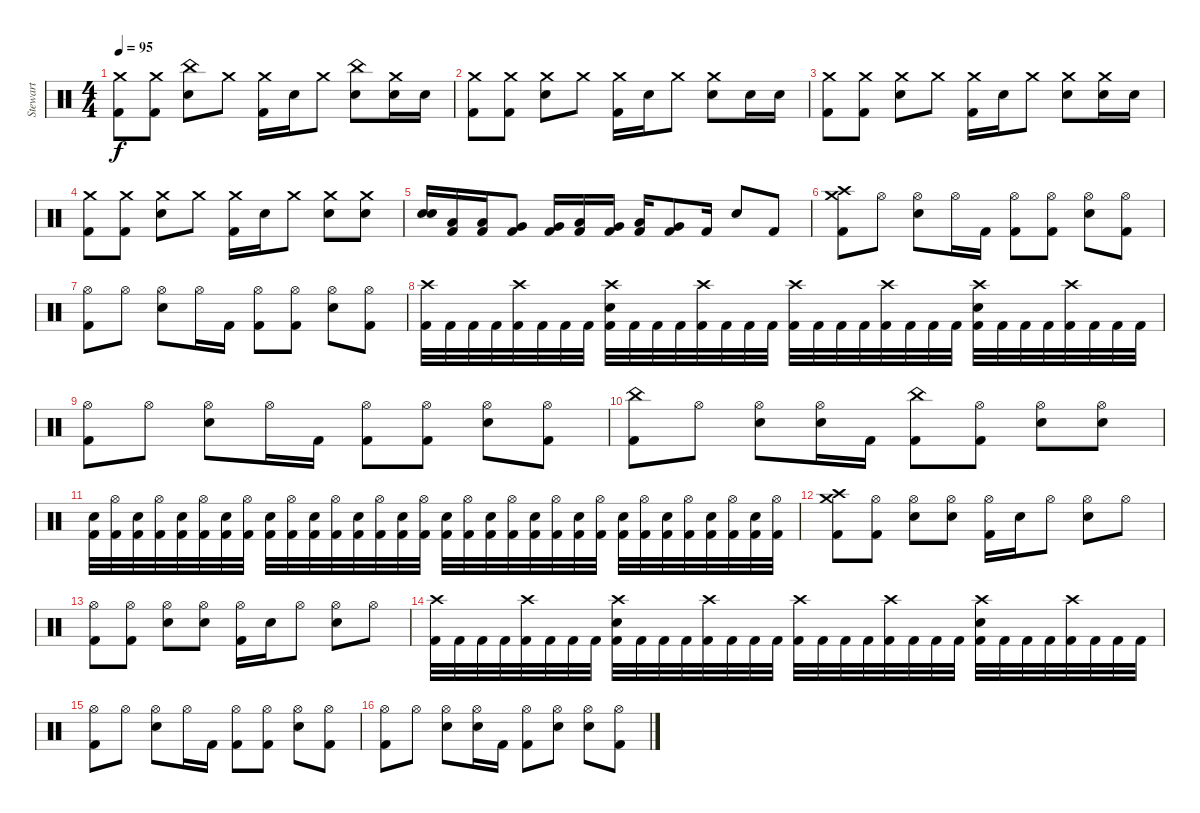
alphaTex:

\track ("Stewart" "Stewart") {instrument percussion}
\staff {score}
\articulation defaults
\ts (4 4)
\tempo 95
\clef neutral
\ks c
("Crash medium (hit)" "Kick (hit) 2").8{dy f} ("Crash medium (hit)" "Kick (hit) 2").8 ("China (hit)" "Snare (hit) 2").8 "Crash medium (hit)".8 ("Crash medium (hit)" "Kick (hit) 2").16 "Snare (hit) 2".16 "Crash medium (hit)".8 ("China (hit)" "Snare (hit) 2").8 ("Crash medium (hit)" "Snare (hit) 2").16 "Snare (hit) 2".16 |
("Crash medium (hit)" "Kick (hit) 2").8 ("Crash medium (hit)" "Kick (hit) 2").8 ("Crash medium (hit)" "Snare (hit) 2").8 "Crash medium (hit)".8 ("Crash medium (hit)" "Kick (hit) 2").16 "Snare (hit) 2".16 "Crash medium (hit)".8 ("Crash medium (hit)" "Snare (hit) 2").8 "Snare (hit) 2".16 "Snare (hit) 2".16 |
("Crash medium (hit)" "Kick (hit) 2").8 ("Crash medium (hit)" "Kick (hit) 2").8 ("Crash medium (hit)" "Snare (hit) 2").8 "Crash medium (hit)".8 ("Crash medium (hit)" "Kick (hit) 2").16 "Snare (hit) 2".16 "Crash medium (hit)".8 ("Crash medium (hit)" "Snare (hit) 2").8 ("Crash medium (hit)" "Snare (hit) 2").16 "Snare (hit) 2".16 |
("Crash medium (hit)" "Kick (hit) 2").8 ("Crash medium (hit)" "Kick (hit) 2").8 ("Crash medium (hit)" "Snare (hit) 2").8 "Crash medium (hit)".8 ("Crash medium (hit)" "Kick (hit) 2").16 "Snare (hit) 2".16 "Crash medium (hit)".8 ("Crash medium (hit)" "Snare (hit) 2").8 ("Crash medium (hit)" "Snare (hit) 2").8 |
("Electric Snare (hit)" "Electric Snare (hit)").16 ("Low Tom (hit)" "Kick (hit) 2").16 ("Low Tom (hit)" "Kick (hit) 2").16 ("Very Low Tom (hit)" "Kick (hit) 2").8 ("Very Low Tom (hit)" "Kick (hit) 2").16 ("Low Tom (hit)" "Kick (hit) 2").16 ("Very Low Tom (hit)" "Kick (hit) 2").16 ("Low Tom (hit)" "Kick (hit) 2").16 ("Very Low Tom (hit)" "Kick (hit) 2").8 "Kick (hit) 2".16 "Electric Snare (hit)".8 "Kick (hit) 2".8 |
("Crash high (hit)" "Kick (hit) 2" "Crash medium (hit)").8 "Hi-Hat (open)".8 ("Hi-Hat (open)" "Snare (hit) 2").8 "Hi-Hat (open)".16 "Kick (hit) 2".16 ("Hi-Hat (open)" "Kick (hit) 2").8 ("Hi-Hat (open)" "Kick (hit) 2").8 ("Hi-Hat (open)" "Snare (hit) 2").8 ("Hi-Hat (open)" "Kick (hit) 2").8 |
("Hi-Hat (open)" "Kick (hit) 2").8 "Hi-Hat (open)".8 ("Hi-Hat (open)" "Snare (hit) 2").8 "Hi-Hat (open)".16 "Kick (hit) 2".16 ("Hi-Hat (open)" "Kick (hit) 2").8 ("Hi-Hat (open)" "Kick (hit) 2").8 ("Hi-Hat (open)" "Snare (hit) 2").8 ("Hi-Hat (open)" "Kick (hit) 2").8 |
("Crash high (hit)" "Kick (hit) 2").32 "Kick (hit) 2".32 "Kick (hit) 2".32 "Kick (hit) 2".32 ("Crash high (hit)" "Kick (hit) 2").32 "Kick (hit) 2".32 "Kick (hit) 2".32 "Kick (hit) 2".32 ("Crash high (hit)" "Snare (hit) 2" "Kick (hit) 2").32 "Kick (hit) 2".32 "Kick (hit) 2".32 "Kick (hit) 2".32 ("Crash high (hit)" "Kick (hit) 2").32 "Kick (hit) 2".32 "Kick (hit) 2".32 "Kick (hit) 2".32 ("Crash high (hit)" "Kick (hit) 2").32 "Kick (hit) 2".32 "Kick (hit) 2".32 "Kick (hit) 2".32 ("Crash high (hit)" "Kick (hit) 2").32 "Kick (hit) 2".32 "Kick (hit) 2".32 "Kick (hit) 2".32 ("Crash high (hit)" "Snare (hit) 2" "Kick (hit) 2").32 "Kick (hit) 2".32 "Kick (hit) 2".32 "Kick (hit) 2".32 ("Crash high (hit)" "Kick (hit) 2").32 "Kick (hit) 2".32 "Kick (hit) 2".32 "Kick (hit) 2".32 |
("Hi-Hat (open)" "Kick (hit) 2").8 "Hi-Hat (open)".8 ("Hi-Hat (open)" "Snare (hit) 2").8 "Hi-Hat (open)".16 "Kick (hit) 2".16 ("Hi-Hat (open)" "Kick (hit) 2").8 ("Hi-Hat (open)" "Kick (hit) 2").8 ("Hi-Hat (open)" "Snare (hit) 2").8 ("Hi-Hat (open)" "Kick (hit) 2").8 |
("China (hit)" "Kick (hit) 2").8 "Hi-Hat (open)".8 ("Hi-Hat (open)" "Snare (hit) 2").8 ("Hi-Hat (open)" "Snare (hit) 2").16 "Kick (hit) 2".16 ("China (hit)" "Kick (hit) 2").8 ("Hi-Hat (open)" "Kick (hit) 2").8 ("Hi-Hat (open)" "Snare (hit) 2").8 ("Hi-Hat (open)" "Snare (hit) 2").8 |
("Snare (hit) 2" "Kick (hit) 2").32 ("Hi-Hat (open)" "Kick (hit) 2").32 ("Snare (hit) 2" "Kick (hit) 2").32 ("Hi-Hat (open)" "Kick (hit) 2").32 ("Snare (hit) 2" "Kick (hit) 2").32 ("Hi-Hat (open)" "Kick (hit) 2").32 ("Snare (hit) 2" "Kick (hit) 2").32 ("Hi-Hat (open)" "Kick (hit) 2").32 ("Snare (hit) 2" "Kick (hit) 2").32 ("Hi-Hat (open)" "Kick (hit) 2").32 ("Snare (hit) 2" "Kick (hit) 2").32 ("Hi-Hat (open)" "Kick (hit) 2").32 ("Snare (hit) 2" "Kick (hit) 2").32 ("Hi-Hat (open)" "Kick (hit) 2").32 ("Snare (hit) 2" "Kick (hit) 2").32 ("Hi-Hat (open)" "Kick (hit) 2").32 ("Snare (hit) 2" "Kick (hit) 2").32 ("Hi-Hat (open)" "Kick (hit) 2").32 ("Snare (hit) 2" "Kick (hit) 2").32 ("Hi-Hat (open)" "Kick (hit) 2").32 ("Snare (hit) 2" "Kick (hit) 2").32 ("Hi-Hat (open)" "Kick (hit) 2").32 ("Snare (hit) 2" "Kick (hit) 2").32 ("Hi-Hat (open)" "Kick (hit) 2").32 ("Snare (hit) 2" "Kick (hit) 2").32 ("Hi-Hat (open)" "Kick (hit) 2").32 ("Snare (hit) 2" "Kick (hit) 2").32 ("Hi-Hat (open)" "Kick (hit) 2").32 ("Snare (hit) 2" "Kick (hit) 2").32 ("Hi-Hat (open)" "Kick (hit) 2").32 ("Snare (hit) 2" "Kick (hit) 2").32 ("Hi-Hat (open)" "Kick (hit) 2").32 |
("Crash medium (hit)" "Kick (hit) 2" "Crash high (hit)").8 ("Hi-Hat (open)" "Kick (hit) 2").8 ("Hi-Hat (open)" "Snare (hit) 2").8 ("Hi-Hat (open)" "Snare (hit) 2").8 ("Hi-Hat (open)" "Kick (hit) 2").16 "Snare (hit) 2".16 "Hi-Hat (open)".8 ("Hi-Hat (open)" "Snare (hit) 2").8 "Hi-Hat (open)".8 |
("Hi-Hat (open)" "Kick (hit) 2").8 ("Hi-Hat (open)" "Kick (hit) 2").8 ("Hi-Hat (open)" "Snare (hit) 2").8 ("Hi-Hat (open)" "Snare (hit) 2").8 ("Hi-Hat (open)" "Kick (hit) 2").16 "Snare (hit) 2".16 "Hi-Hat (open)".8 ("Hi-Hat (open)" "Snare (hit) 2").8 "Hi-Hat (open)".8 |
("Crash high (hit)" "Kick (hit) 2").32 "Kick (hit) 2".32 "Kick (hit) 2".32 "Kick (hit) 2".32 ("Crash high (hit)" "Kick (hit) 2").32 "Kick (hit) 2".32 "Kick (hit) 2".32 "Kick (hit) 2".32 ("Crash high (hit)" "Snare (hit) 2" "Kick (hit) 2").32 "Kick (hit) 2".32 "Kick (hit) 2".32 "Kick (hit) 2".32 ("Crash high (hit)" "Kick (hit) 2").32 "Kick (hit) 2".32 "Kick (hit) 2".32 "Kick (hit) 2".32 ("Crash high (hit)" "Kick (hit) 2").32 "Kick (hit) 2".32 "Kick (hit) 2".32 "Kick (hit) 2".32 ("Crash high (hit)" "Kick (hit) 2").32 "Kick (hit) 2".32 "Kick (hit) 2".32 "Kick (hit) 2".32 ("Crash high (hit)" "Snare (hit) 2" "Kick (hit) 2").32 "Kick (hit) 2".32 "Kick (hit) 2".32 "Kick (hit) 2".32 ("Crash high (hit)" "Kick (hit) 2").32 "Kick (hit) 2".32 "Kick (hit) 2".32 "Kick (hit) 2".32 |
("Hi-Hat (open)" "Kick (hit) 2").8 "Hi-Hat (open)".8 ("Hi-Hat (open)" "Snare (hit) 2").8 "Hi-Hat (open)".16 "Kick (hit) 2".16 ("Hi-Hat (open)" "Kick (hit) 2").8 ("Hi-Hat (open)" "Kick (hit) 2").8 ("Hi-Hat (open)" "Snare (hit) 2").8 ("Hi-Hat (open)" "Kick (hit) 2").8 |
("Hi-Hat (open)" "Kick (hit) 2").8 "Hi-Hat (open)".8 ("Hi-Hat (open)" "Snare (hit) 2").8 ("Hi-Hat (open)" "Snare (hit) 2").16 "Kick (hit) 2".16 ("Hi-Hat (open)" "Kick (hit) 2").8 ("Hi-Hat (open)" "Snare (hit) 2").8 ("Hi-Hat (open)" "Snare (hit) 2").8 ("Hi-Hat (open)" "Kick (hit) 2").8
